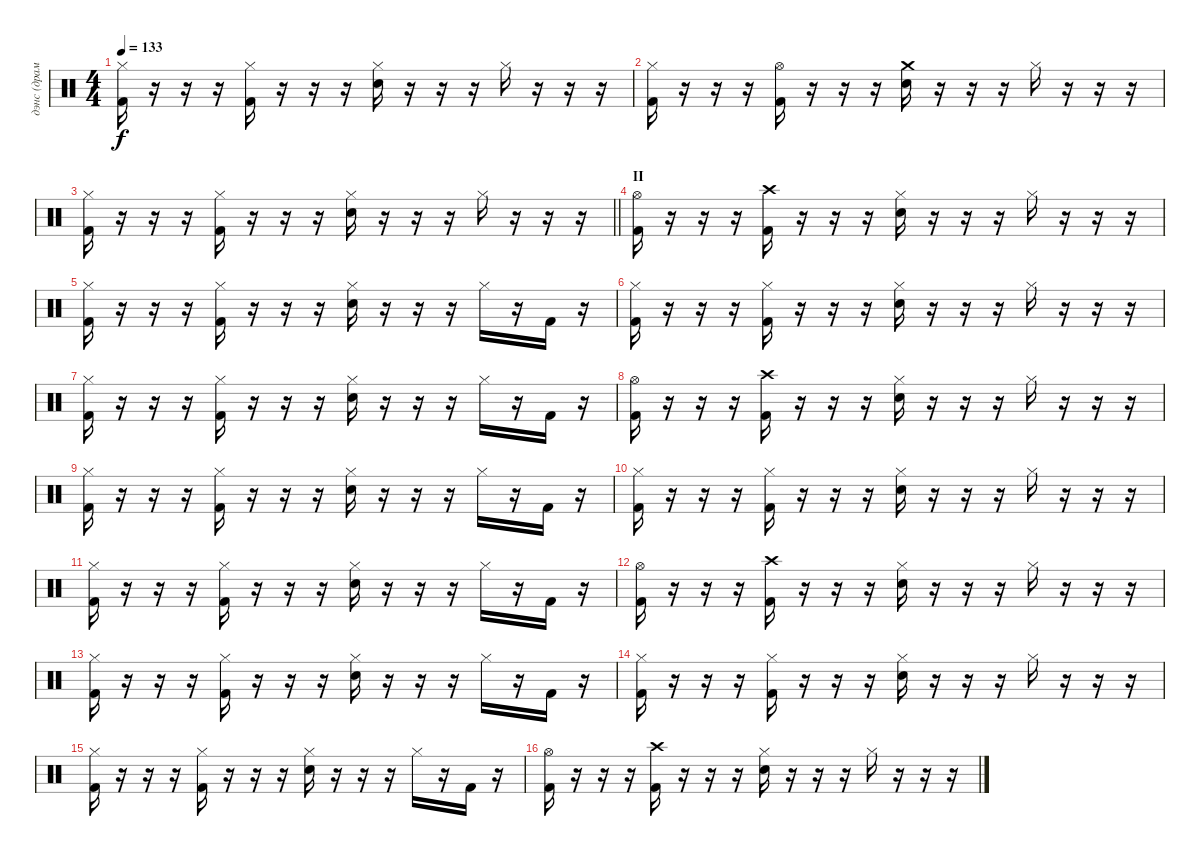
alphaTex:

\track ("дэнс (драммы)" "дэнс (драм") {instrument percussion}
\staff {score}
\articulation defaults
\ts (4 4)
\tempo 133
\clef neutral
\ks c
("Kick (hit) 2" "Hi-Hat (closed)").16{dy f} r.16 r.16 r.16 ("Kick (hit) 2" "Hi-Hat (closed)").16 r.16 r.16 r.16 ("Snare (hit) 2" "Hi-Hat (closed)").16 r.16 r.16 r.16 "Hi-Hat (closed)".16 r.16 r.16 r.16 |
("Kick (hit) 2" "Hi-Hat (closed)").16 r.16 r.16 r.16 ("Kick (hit) 2" "Hi-Hat (open)").16 r.16 r.16 r.16 ("Snare (hit) 2" "Crash medium (hit)").16 r.16 r.16 r.16 "Hi-Hat (closed)".16 r.16 r.16 r.16 |
\barLineRight lightlight
("Kick (hit) 2" "Hi-Hat (closed)").16 r.16 r.16 r.16 ("Kick (hit) 2" "Hi-Hat (closed)").16 r.16 r.16 r.16 ("Snare (hit) 2" "Hi-Hat (closed)").16 r.16 r.16 r.16 "Hi-Hat (closed)".16 r.16 r.16 r.16 |
\section ("" "II")
("Kick (hit) 2" "Hi-Hat (open)").16 r.16 r.16 r.16 ("Kick (hit) 2" "Crash high (hit)").16 r.16 r.16 r.16 ("Snare (hit) 2" "Hi-Hat (closed)").16 r.16 r.16 r.16 "Hi-Hat (closed)".16 r.16 r.16 r.16 |
("Kick (hit) 2" "Hi-Hat (closed)").16 r.16 r.16 r.16 ("Kick (hit) 2" "Hi-Hat (closed)").16 r.16 r.16 r.16 ("Snare (hit) 2" "Hi-Hat (closed)").16 r.16 r.16 r.16 "Hi-Hat (closed)".16 r.16 "Kick (hit) 2".16 r.16 |
("Kick (hit) 2" "Hi-Hat (closed)").16 r.16 r.16 r.16 ("Kick (hit) 2" "Hi-Hat (closed)").16 r.16 r.16 r.16 ("Snare (hit) 2" "Hi-Hat (closed)").16 r.16 r.16 r.16 "Hi-Hat (closed)".16 r.16 r.16 r.16 |
("Kick (hit) 2" "Hi-Hat (closed)").16 r.16 r.16 r.16 ("Kick (hit) 2" "Hi-Hat (closed)").16 r.16 r.16 r.16 ("Snare (hit) 2" "Hi-Hat (closed)").16 r.16 r.16 r.16 "Hi-Hat (closed)".16 r.16 "Kick (hit) 2".16 r.16 |
("Kick (hit) 2" "Hi-Hat (open)").16 r.16 r.16 r.16 ("Kick (hit) 2" "Crash high (hit)").16 r.16 r.16 r.16 ("Snare (hit) 2" "Hi-Hat (closed)").16 r.16 r.16 r.16 "Hi-Hat (closed)".16 r.16 r.16 r.16 |
("Kick (hit) 2" "Hi-Hat (closed)").16 r.16 r.16 r.16 ("Kick (hit) 2" "Hi-Hat (closed)").16 r.16 r.16 r.16 ("Snare (hit) 2" "Hi-Hat (closed)").16 r.16 r.16 r.16 "Hi-Hat (closed)".16 r.16 "Kick (hit) 2".16 r.16 |
("Kick (hit) 2" "Hi-Hat (closed)").16 r.16 r.16 r.16 ("Kick (hit) 2" "Hi-Hat (closed)").16 r.16 r.16 r.16 ("Snare (hit) 2" "Hi-Hat (closed)").16 r.16 r.16 r.16 "Hi-Hat (closed)".16 r.16 r.16 r.16 |
("Kick (hit) 2" "Hi-Hat (closed)").16 r.16 r.16 r.16 ("Kick (hit) 2" "Hi-Hat (closed)").16 r.16 r.16 r.16 ("Snare (hit) 2" "Hi-Hat (closed)").16 r.16 r.16 r.16 "Hi-Hat (closed)".16 r.16 "Kick (hit) 2".16 r.16 |
("Kick (hit) 2" "Hi-Hat (open)").16 r.16 r.16 r.16 ("Kick (hit) 2" "Crash high (hit)").16 r.16 r.16 r.16 ("Snare (hit) 2" "Hi-Hat (closed)").16 r.16 r.16 r.16 "Hi-Hat (closed)".16 r.16 r.16 r.16 |
("Kick (hit) 2" "Hi-Hat (closed)").16 r.16 r.16 r.16 ("Kick (hit) 2" "Hi-Hat (closed)").16 r.16 r.16 r.16 ("Snare (hit) 2" "Hi-Hat (closed)").16 r.16 r.16 r.16 "Hi-Hat (closed)".16 r.16 "Kick (hit) 2".16 r.16 |
("Kick (hit) 2" "Hi-Hat (closed)").16 r.16 r.16 r.16 ("Kick (hit) 2" "Hi-Hat (closed)").16 r.16 r.16 r.16 ("Snare (hit) 2" "Hi-Hat (closed)").16 r.16 r.16 r.16 "Hi-Hat (closed)".16 r.16 r.16 r.16 |
("Kick (hit) 2" "Hi-Hat (closed)").16 r.16 r.16 r.16 ("Kick (hit) 2" "Hi-Hat (closed)").16 r.16 r.16 r.16 ("Snare (hit) 2" "Hi-Hat (closed)").16 r.16 r.16 r.16 "Hi-Hat (closed)".16 r.16 "Kick (hit) 2".16 r.16 |
("Kick (hit) 2" "Hi-Hat (open)").16 r.16 r.16 r.16 ("Kick (hit) 2" "Crash high (hit)").16 r.16 r.16 r.16 ("Snare (hit) 2" "Hi-Hat (closed)").16 r.16 r.16 r.16 "Hi-Hat (closed)".16 r.16 r.16 r.16
